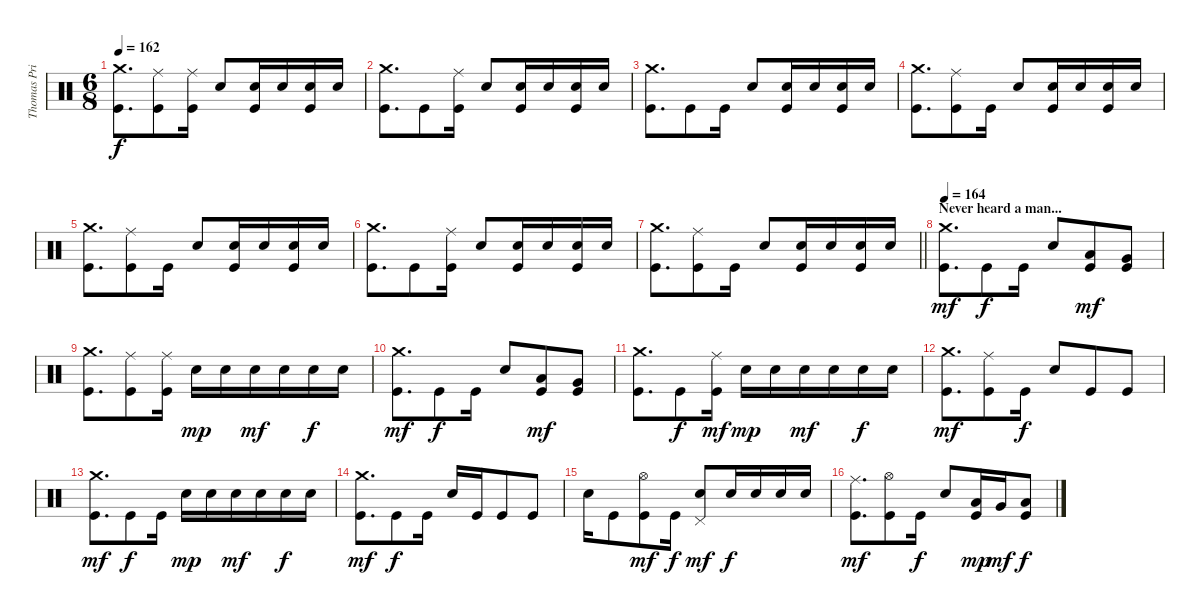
\track ("Thomas Pridgen" "Thomas Pri") {instrument percussion}
\staff {score}
\articulation defaults
\ts (6 8)
\tempo 162
\clef neutral
\ks c
("Crash medium (hit)" "Kick (hit)").8{d dy f} ("Ride (middle)" "Kick (hit)").8 ("Ride (middle)" "Kick (hit)").16 "Snare (hit) 2".8 ("Snare (hit) 2" "Kick (hit)").16 "Snare (hit) 2".16 ("Snare (hit) 2" "Kick (hit)").16 "Snare (hit) 2".16 |
("Crash medium (hit)" "Kick (hit)").8{d} "Kick (hit)".8 ("Ride (middle)" "Kick (hit)").16 "Snare (hit) 2".8 ("Snare (hit) 2" "Kick (hit)").16 "Snare (hit) 2".16 ("Snare (hit) 2" "Kick (hit)").16 "Snare (hit) 2".16 |
("Crash medium (hit)" "Kick (hit)").8{d} "Kick (hit)".8 "Kick (hit)".16 "Snare (hit) 2".8 ("Snare (hit) 2" "Kick (hit)").16 "Snare (hit) 2".16 ("Snare (hit) 2" "Kick (hit)").16 "Snare (hit) 2".16 |
("Crash medium (hit)" "Kick (hit)").8{d} ("Ride (middle)" "Kick (hit)").8 "Kick (hit)".16 "Snare (hit) 2".8 ("Snare (hit) 2" "Kick (hit)").16 "Snare (hit) 2".16 ("Snare (hit) 2" "Kick (hit)").16 "Snare (hit) 2".16 |
("Crash medium (hit)" "Kick (hit)").8{d} ("Ride (middle)" "Kick (hit)").8 "Kick (hit)".16 "Snare (hit) 2".8 ("Snare (hit) 2" "Kick (hit)").16 "Snare (hit) 2".16 ("Snare (hit) 2" "Kick (hit)").16 "Snare (hit) 2".16 |
("Crash medium (hit)" "Kick (hit)").8{d} "Kick (hit)".8 ("Ride (middle)" "Kick (hit)").16 "Snare (hit) 2".8 ("Snare (hit) 2" "Kick (hit)").16 "Snare (hit) 2".16 ("Snare (hit) 2" "Kick (hit)").16 "Snare (hit) 2".16 |
\barLineRight lightlight
("Crash medium (hit)" "Kick (hit)").8{d} ("Ride (middle)" "Kick (hit)").8 "Kick (hit)".16 "Snare (hit) 2".8 ("Snare (hit) 2" "Kick (hit)").16 "Snare (hit) 2".16 ("Snare (hit) 2" "Kick (hit)").16 "Snare (hit) 2".16 |
\section ("" "Never heard a man...")
\tempo 164
("Crash medium (hit)" "Kick (hit)").8{d dy mf} "Kick (hit)".8{dy f} "Kick (hit)".16 "Snare (hit) 2".8 ("Low Tom (hit)" "Kick (hit)").8{dy mf} ("Very Low Tom (hit)" "Kick (hit)").8 |
("Crash medium (hit)" "Kick (hit)").8{d} ("Ride (middle)" "Kick (hit)").8 ("Ride (middle)" "Kick (hit)").16 "Snare (hit) 2".16{dy mp} "Snare (hit) 2".16 "Snare (hit) 2".16{dy mf} "Snare (hit) 2".16 "Snare (hit) 2".16{dy f} "Snare (hit) 2".16 |
("Crash medium (hit)" "Kick (hit)").8{d dy mf} "Kick (hit)".8{dy f} "Kick (hit)".16 "Snare (hit) 2".8 ("Low Tom (hit)" "Kick (hit)").8{dy mf} ("Very Low Tom (hit)" "Kick (hit)").8 |
("Crash medium (hit)" "Kick (hit)").8{d} "Kick (hit)".8{dy f} ("Ride (middle)" "Kick (hit)").16{dy mf} "Snare (hit) 2".16{dy mp} "Snare (hit) 2".16 "Snare (hit) 2".16{dy mf} "Snare (hit) 2".16 "Snare (hit) 2".16{dy f} "Snare (hit) 2".16 |
("Crash medium (hit)" "Kick (hit)").8{d dy mf} ("Ride (middle)" "Kick (hit)").8 "Kick (hit)".16{dy f} "Snare (hit) 2".8 "Kick (hit)".8 "Kick (hit)".8 |
("Crash medium (hit)" "Kick (hit)").8{d dy mf} "Kick (hit)".8{dy f} "Kick (hit)".16 "Snare (hit) 2".16{dy mp} "Snare (hit) 2".16 "Snare (hit) 2".16{dy mf} "Snare (hit) 2".16 "Snare (hit) 2".16{dy f} "Snare (hit) 2".16 |
("Crash medium (hit)" "Kick (hit)").8{d dy mf} "Kick (hit)".8{dy f} "Kick (hit)".16 "Snare (hit) 2".16 "Kick (hit)".16 "Kick (hit)".8 "Kick (hit)".8 |
"Snare (hit) 2".16 "Kick (hit)".8 ("Hi-Hat (open)" "Kick (hit)").8{dy mf} "Kick (hit)".16{dy f} ("Pedal Hi-Hat (hit)" "Snare (hit) 2").8{dy mf} "Snare (hit) 2".16{dy f} "Snare (hit) 2".16 "Snare (hit) 2".16 "Snare (hit) 2".16 |
("Ride (middle)" "Kick (hit)").8{d dy mf} ("Hi-Hat (open)" "Kick (hit)").8 "Kick (hit)".16{dy f} "Snare (hit) 2".8 ("Low Tom (hit)" "Kick (hit)").16{dy mp} "Very Low Tom (hit)".16{dy mf} ("Low Floor Tom (hit)" "Kick (hit)").8{dy f}
